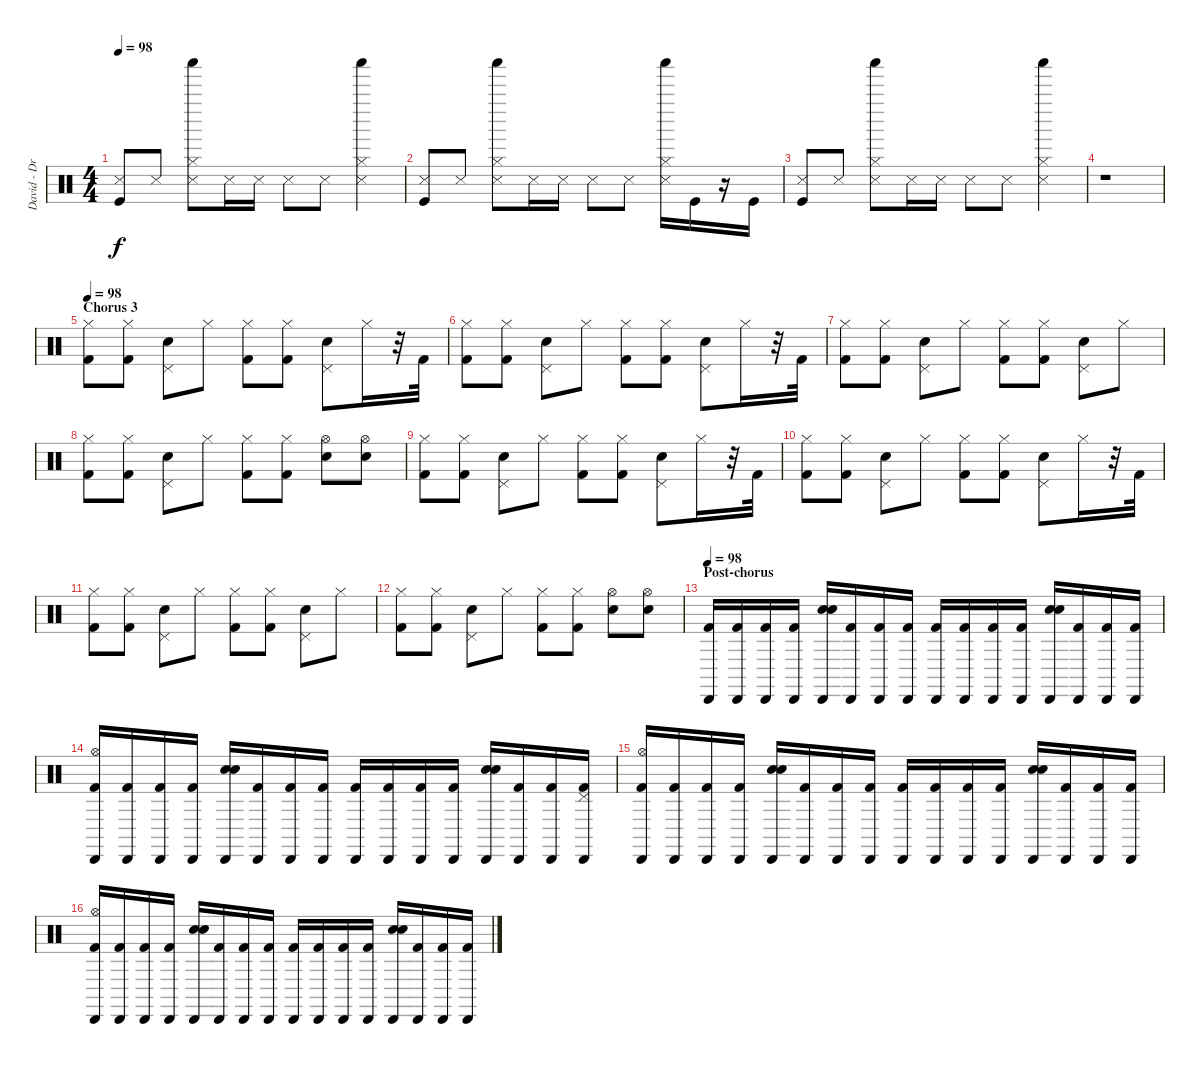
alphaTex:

\track ("David - Drums" "David - Dr") {instrument percussion}
\staff {score}
\articulation defaults
\ts (4 4)
\tempo 98
\clef neutral
\ks c
("Kick (hit)" "Metronome (hit)").8{dy f} "Metronome (hit)".8 ("Shaker (hit)" "Hi-Hat (closed)" "Metronome (hit)").8 "Metronome (hit)".16 "Metronome (hit)".16 "Metronome (hit)".8 "Metronome (hit)".8 ("Shaker (hit)" "Hi-Hat (closed)" "Metronome (hit)").4 |
("Kick (hit)" "Metronome (hit)").8 "Metronome (hit)".8 ("Shaker (hit)" "Hi-Hat (closed)" "Metronome (hit)").8 "Metronome (hit)".16 "Metronome (hit)".16 "Metronome (hit)".8 "Metronome (hit)".8 ("Shaker (hit)" "Hi-Hat (closed)" "Metronome (hit)").16 "Kick (hit)".16 r.16 "Kick (hit)".16 |
("Kick (hit)" "Metronome (hit)").8 "Metronome (hit)".8 ("Shaker (hit)" "Hi-Hat (closed)" "Metronome (hit)").8 "Metronome (hit)".16 "Metronome (hit)".16 "Metronome (hit)".8 "Metronome (hit)".8 ("Shaker (hit)" "Hi-Hat (closed)" "Metronome (hit)").4 |
r.1 |
\section ("" "Chorus 3")
\tempo 98
("Hi-Hat (closed)" "Kick (hit) 2").8{volume 12} ("Hi-Hat (closed)" "Kick (hit) 2").8 ("Pedal Hi-Hat (hit)" "Snare (hit) 2").8 "Hi-Hat (closed)".8 ("Hi-Hat (closed)" "Kick (hit) 2").8 ("Hi-Hat (closed)" "Kick (hit) 2").8 ("Pedal Hi-Hat (hit)" "Snare (hit) 2").8 "Hi-Hat (closed)".16 r.32 "Kick (hit) 2".32 |
("Hi-Hat (closed)" "Kick (hit) 2").8 ("Hi-Hat (closed)" "Kick (hit) 2").8 ("Pedal Hi-Hat (hit)" "Snare (hit) 2").8 "Hi-Hat (closed)".8 ("Hi-Hat (closed)" "Kick (hit) 2").8 ("Hi-Hat (closed)" "Kick (hit) 2").8 ("Pedal Hi-Hat (hit)" "Snare (hit) 2").8 "Hi-Hat (closed)".16 r.32 "Kick (hit) 2".32 |
("Hi-Hat (closed)" "Kick (hit) 2").8 ("Hi-Hat (closed)" "Kick (hit) 2").8 ("Pedal Hi-Hat (hit)" "Snare (hit) 2").8 "Hi-Hat (closed)".8 ("Hi-Hat (closed)" "Kick (hit) 2").8 ("Hi-Hat (closed)" "Kick (hit) 2").8 ("Pedal Hi-Hat (hit)" "Snare (hit) 2").8 "Hi-Hat (closed)".8 |
("Hi-Hat (closed)" "Kick (hit) 2").8 ("Hi-Hat (closed)" "Kick (hit) 2").8 ("Pedal Hi-Hat (hit)" "Snare (hit) 2").8 "Hi-Hat (closed)".8 ("Hi-Hat (closed)" "Kick (hit) 2").8 ("Hi-Hat (closed)" "Kick (hit) 2").8 ("Hi-Hat (open)" "Snare (hit) 2").8 ("Hi-Hat (open)" "Snare (hit) 2").8 |
("Hi-Hat (closed)" "Kick (hit) 2").8 ("Hi-Hat (closed)" "Kick (hit) 2").8 ("Pedal Hi-Hat (hit)" "Snare (hit) 2").8 "Hi-Hat (closed)".8 ("Hi-Hat (closed)" "Kick (hit) 2").8 ("Hi-Hat (closed)" "Kick (hit) 2").8 ("Pedal Hi-Hat (hit)" "Snare (hit) 2").8 "Hi-Hat (closed)".16 r.32 "Kick (hit) 2".32 |
("Hi-Hat (closed)" "Kick (hit) 2").8 ("Hi-Hat (closed)" "Kick (hit) 2").8 ("Pedal Hi-Hat (hit)" "Snare (hit) 2").8 "Hi-Hat (closed)".8 ("Hi-Hat (closed)" "Kick (hit) 2").8 ("Hi-Hat (closed)" "Kick (hit) 2").8 ("Pedal Hi-Hat (hit)" "Snare (hit) 2").8 "Hi-Hat (closed)".16 r.32 "Kick (hit) 2".32 |
("Hi-Hat (closed)" "Kick (hit) 2").8 ("Hi-Hat (closed)" "Kick (hit) 2").8 ("Pedal Hi-Hat (hit)" "Snare (hit) 2").8 "Hi-Hat (closed)".8 ("Hi-Hat (closed)" "Kick (hit) 2").8 ("Hi-Hat (closed)" "Kick (hit) 2").8 ("Pedal Hi-Hat (hit)" "Snare (hit) 2").8 "Hi-Hat (closed)".8 |
("Hi-Hat (closed)" "Kick (hit) 2").8 ("Hi-Hat (closed)" "Kick (hit) 2").8 ("Pedal Hi-Hat (hit)" "Snare (hit) 2").8 "Hi-Hat (closed)".8 ("Hi-Hat (closed)" "Kick (hit) 2").8 ("Hi-Hat (closed)" "Kick (hit) 2").8 ("Hi-Hat (open)" "Snare (hit) 2").8 ("Hi-Hat (open)" "Snare (hit) 2").8 |
\section ("" "Post-chorus")
\tempo 98
("Cabasa (hit)" "Kick (hit) 2").16{volume 16} ("Cabasa (hit)" "Kick (hit) 2").16 ("Cabasa (hit)" "Kick (hit) 2").16 ("Cabasa (hit)" "Kick (hit) 2").16 ("Cabasa (hit)" "Electric Snare (hit)" "Snare (hit) 2").16 ("Cabasa (hit)" "Kick (hit) 2").16 ("Cabasa (hit)" "Kick (hit) 2").16 ("Cabasa (hit)" "Kick (hit) 2").16 ("Cabasa (hit)" "Kick (hit) 2").16 ("Cabasa (hit)" "Kick (hit) 2").16 ("Cabasa (hit)" "Kick (hit) 2").16 ("Cabasa (hit)" "Kick (hit) 2").16 ("Cabasa (hit)" "Electric Snare (hit)" "Snare (hit) 2").16 ("Cabasa (hit)" "Kick (hit) 2").16 ("Cabasa (hit)" "Kick (hit) 2").16 ("Cabasa (hit)" "Kick (hit) 2").16 |
("Cabasa (hit)" "Hi-Hat (open)" "Kick (hit) 2").16 ("Cabasa (hit)" "Kick (hit) 2").16 ("Cabasa (hit)" "Kick (hit) 2").16 ("Cabasa (hit)" "Kick (hit) 2").16 ("Cabasa (hit)" "Electric Snare (hit)" "Snare (hit) 2").16 ("Cabasa (hit)" "Kick (hit) 2").16 ("Cabasa (hit)" "Kick (hit) 2").16 ("Cabasa (hit)" "Kick (hit) 2").16 ("Cabasa (hit)" "Kick (hit) 2").16 ("Cabasa (hit)" "Kick (hit) 2").16 ("Cabasa (hit)" "Kick (hit) 2").16 ("Cabasa (hit)" "Kick (hit) 2").16 ("Cabasa (hit)" "Electric Snare (hit)" "Snare (hit) 2").16 ("Cabasa (hit)" "Kick (hit) 2").16 ("Cabasa (hit)" "Kick (hit) 2").16 ("Cabasa (hit)" "Pedal Hi-Hat (hit)" "Kick (hit) 2").16 |
("Cabasa (hit)" "Hi-Hat (open)" "Kick (hit) 2").16 ("Cabasa (hit)" "Kick (hit) 2").16 ("Cabasa (hit)" "Kick (hit) 2").16 ("Cabasa (hit)" "Kick (hit) 2").16 ("Cabasa (hit)" "Electric Snare (hit)" "Snare (hit) 2").16 ("Cabasa (hit)" "Kick (hit) 2").16 ("Cabasa (hit)" "Kick (hit) 2").16 ("Cabasa (hit)" "Kick (hit) 2").16 ("Cabasa (hit)" "Kick (hit) 2").16 ("Cabasa (hit)" "Kick (hit) 2").16 ("Cabasa (hit)" "Kick (hit) 2").16 ("Cabasa (hit)" "Kick (hit) 2").16 ("Cabasa (hit)" "Electric Snare (hit)" "Snare (hit) 2").16 ("Cabasa (hit)" "Kick (hit) 2").16 ("Cabasa (hit)" "Kick (hit) 2").16 ("Cabasa (hit)" "Kick (hit) 2").16 |
("Cabasa (hit)" "Hi-Hat (open)" "Kick (hit) 2").16 ("Cabasa (hit)" "Kick (hit) 2").16 ("Cabasa (hit)" "Kick (hit) 2").16 ("Cabasa (hit)" "Kick (hit) 2").16 ("Cabasa (hit)" "Electric Snare (hit)" "Snare (hit) 2").16 ("Cabasa (hit)" "Kick (hit) 2").16 ("Cabasa (hit)" "Kick (hit) 2").16 ("Cabasa (hit)" "Kick (hit) 2").16 ("Cabasa (hit)" "Kick (hit) 2").16 ("Cabasa (hit)" "Kick (hit) 2").16 ("Cabasa (hit)" "Kick (hit) 2").16 ("Cabasa (hit)" "Kick (hit) 2").16 ("Cabasa (hit)" "Electric Snare (hit)" "Snare (hit) 2").16 ("Cabasa (hit)" "Kick (hit) 2").16 ("Cabasa (hit)" "Kick (hit) 2").16 ("Cabasa (hit)" "Kick (hit) 2").16
